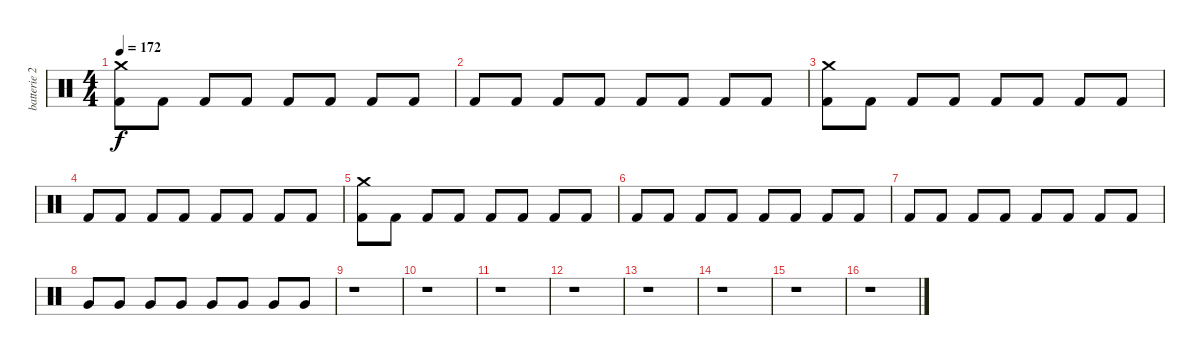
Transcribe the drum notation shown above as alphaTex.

\track ("batterie 2" "batterie 2") {instrument percussion}
\staff {score}
\articulation defaults
\ts (4 4)
\tempo 172
\clef neutral
\ks c
("Kick (hit) 2" "Crash medium (hit)").8{dy f} "Kick (hit) 2".8 "Kick (hit) 2".8 "Kick (hit) 2".8 "Kick (hit) 2".8 "Kick (hit) 2".8 "Kick (hit) 2".8 "Kick (hit) 2".8 |
"Kick (hit) 2".8 "Kick (hit) 2".8 "Kick (hit) 2".8 "Kick (hit) 2".8 "Kick (hit) 2".8 "Kick (hit) 2".8 "Kick (hit) 2".8 "Kick (hit) 2".8 |
("Kick (hit) 2" "Crash medium (hit)").8 "Kick (hit) 2".8 "Kick (hit) 2".8 "Kick (hit) 2".8 "Kick (hit) 2".8 "Kick (hit) 2".8 "Kick (hit) 2".8 "Kick (hit) 2".8 |
"Kick (hit) 2".8 "Kick (hit) 2".8 "Kick (hit) 2".8 "Kick (hit) 2".8 "Kick (hit) 2".8 "Kick (hit) 2".8 "Kick (hit) 2".8 "Kick (hit) 2".8 |
("Kick (hit) 2" "Crash medium (hit)").8 "Kick (hit) 2".8 "Kick (hit) 2".8 "Kick (hit) 2".8 "Kick (hit) 2".8 "Kick (hit) 2".8 "Kick (hit) 2".8 "Kick (hit) 2".8 |
"Kick (hit) 2".8 "Kick (hit) 2".8 "Kick (hit) 2".8 "Kick (hit) 2".8 "Kick (hit) 2".8 "Kick (hit) 2".8 "Kick (hit) 2".8 "Kick (hit) 2".8 |
"Kick (hit) 2".8 "Kick (hit) 2".8 "Kick (hit) 2".8 "Kick (hit) 2".8 "Kick (hit) 2".8 "Kick (hit) 2".8 "Kick (hit) 2".8 "Kick (hit) 2".8 |
"Very Low Tom (hit)".8 "Very Low Tom (hit)".8 "Very Low Tom (hit)".8 "Very Low Tom (hit)".8 "Very Low Tom (hit)".8 "Very Low Tom (hit)".8 "Very Low Tom (hit)".8 "Very Low Tom (hit)".8 |
r.1 |
r.1 |
r.1 |
r.1 |
r.1 |
r.1 |
r.1 |
r.1
